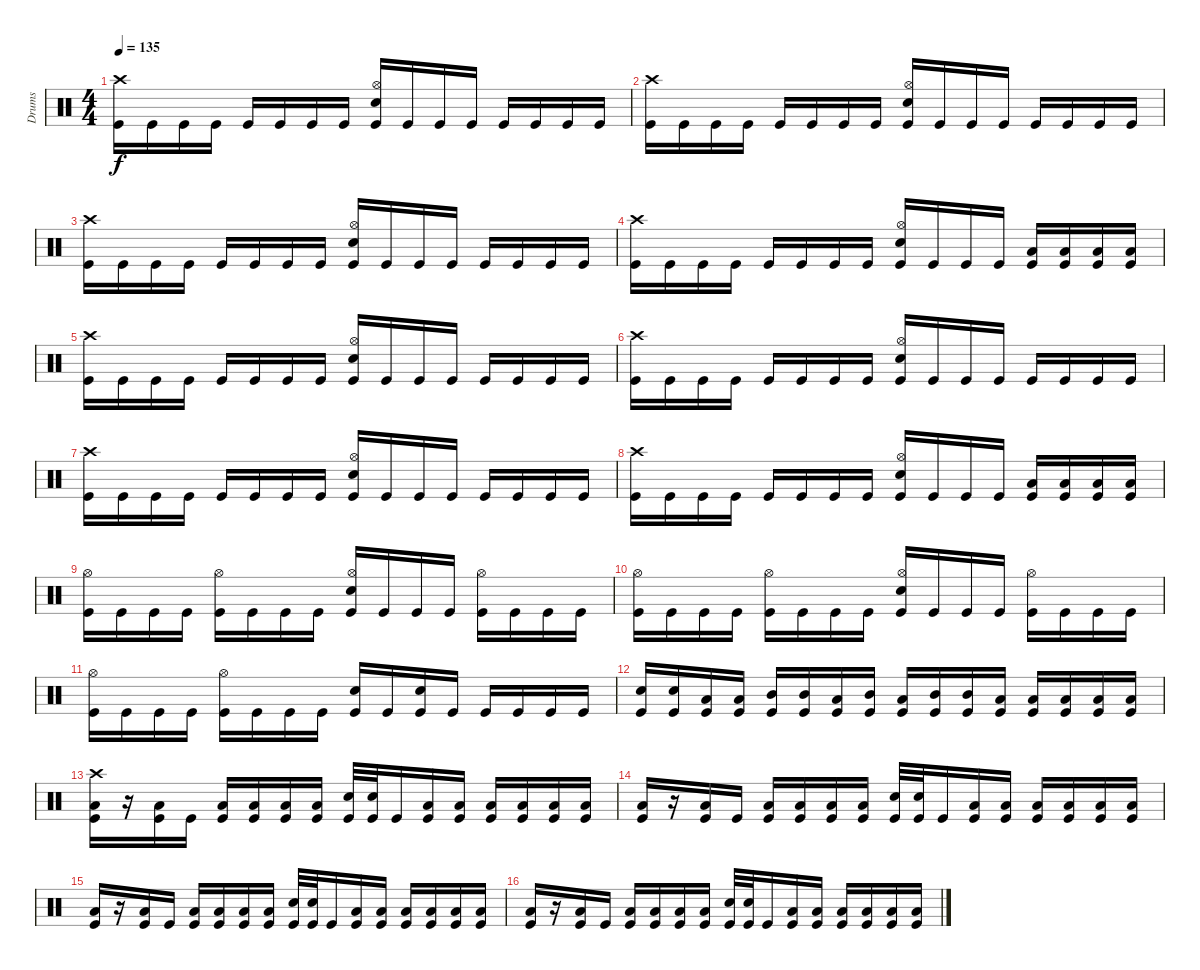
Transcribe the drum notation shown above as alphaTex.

\track ("Drums" "Drums") {instrument percussion}
\staff {score}
\articulation defaults
\ts (4 4)
\tempo 135
\clef neutral
\ks c
("Crash high (hit)" "Kick (hit)").16{dy f} "Kick (hit)".16 "Kick (hit)".16 "Kick (hit)".16 "Kick (hit)".16 "Kick (hit)".16 "Kick (hit)".16 "Kick (hit)".16 ("Hi-Hat (open)" "Electric Snare (hit)" "Kick (hit)").16 "Kick (hit)".16 "Kick (hit)".16 "Kick (hit)".16 "Kick (hit)".16 "Kick (hit)".16 "Kick (hit)".16 "Kick (hit)".16 |
("Crash high (hit)" "Kick (hit)").16 "Kick (hit)".16 "Kick (hit)".16 "Kick (hit)".16 "Kick (hit)".16 "Kick (hit)".16 "Kick (hit)".16 "Kick (hit)".16 ("Hi-Hat (open)" "Electric Snare (hit)" "Kick (hit)").16 "Kick (hit)".16 "Kick (hit)".16 "Kick (hit)".16 "Kick (hit)".16 "Kick (hit)".16 "Kick (hit)".16 "Kick (hit)".16 |
("Crash high (hit)" "Kick (hit)").16 "Kick (hit)".16 "Kick (hit)".16 "Kick (hit)".16 "Kick (hit)".16 "Kick (hit)".16 "Kick (hit)".16 "Kick (hit)".16 ("Hi-Hat (open)" "Electric Snare (hit)" "Kick (hit)").16 "Kick (hit)".16 "Kick (hit)".16 "Kick (hit)".16 "Kick (hit)".16 "Kick (hit)".16 "Kick (hit)".16 "Kick (hit)".16 |
("Crash high (hit)" "Kick (hit)").16 "Kick (hit)".16 "Kick (hit)".16 "Kick (hit)".16 "Kick (hit)".16 "Kick (hit)".16 "Kick (hit)".16 "Kick (hit)".16 ("Hi-Hat (open)" "Electric Snare (hit)" "Kick (hit)").16 "Kick (hit)".16 "Kick (hit)".16 "Kick (hit)".16 ("Low Tom (hit)" "Kick (hit)").16 ("Low Tom (hit)" "Kick (hit)").16 ("Low Tom (hit)" "Kick (hit)").16 ("Low Tom (hit)" "Kick (hit)").16 |
("Crash high (hit)" "Kick (hit)").16 "Kick (hit)".16 "Kick (hit)".16 "Kick (hit)".16 "Kick (hit)".16 "Kick (hit)".16 "Kick (hit)".16 "Kick (hit)".16 ("Hi-Hat (open)" "Electric Snare (hit)" "Kick (hit)").16 "Kick (hit)".16 "Kick (hit)".16 "Kick (hit)".16 "Kick (hit)".16 "Kick (hit)".16 "Kick (hit)".16 "Kick (hit)".16 |
("Crash high (hit)" "Kick (hit)").16 "Kick (hit)".16 "Kick (hit)".16 "Kick (hit)".16 "Kick (hit)".16 "Kick (hit)".16 "Kick (hit)".16 "Kick (hit)".16 ("Hi-Hat (open)" "Electric Snare (hit)" "Kick (hit)").16 "Kick (hit)".16 "Kick (hit)".16 "Kick (hit)".16 "Kick (hit)".16 "Kick (hit)".16 "Kick (hit)".16 "Kick (hit)".16 |
("Crash high (hit)" "Kick (hit)").16 "Kick (hit)".16 "Kick (hit)".16 "Kick (hit)".16 "Kick (hit)".16 "Kick (hit)".16 "Kick (hit)".16 "Kick (hit)".16 ("Hi-Hat (open)" "Electric Snare (hit)" "Kick (hit)").16 "Kick (hit)".16 "Kick (hit)".16 "Kick (hit)".16 "Kick (hit)".16 "Kick (hit)".16 "Kick (hit)".16 "Kick (hit)".16 |
("Crash high (hit)" "Kick (hit)").16 "Kick (hit)".16 "Kick (hit)".16 "Kick (hit)".16 "Kick (hit)".16 "Kick (hit)".16 "Kick (hit)".16 "Kick (hit)".16 ("Hi-Hat (open)" "Electric Snare (hit)" "Kick (hit)").16 "Kick (hit)".16 "Kick (hit)".16 "Kick (hit)".16 ("Low Tom (hit)" "Kick (hit)").16 ("Low Tom (hit)" "Kick (hit)").16 ("Low Tom (hit)" "Kick (hit)").16 ("Low Tom (hit)" "Kick (hit)").16 |
("Hi-Hat (open)" "Kick (hit)").16 "Kick (hit)".16 "Kick (hit)".16 "Kick (hit)".16 ("Hi-Hat (open)" "Kick (hit)").16 "Kick (hit)".16 "Kick (hit)".16 "Kick (hit)".16 ("Hi-Hat (open)" "Electric Snare (hit)" "Kick (hit)").16 "Kick (hit)".16 "Kick (hit)".16 "Kick (hit)".16 ("Hi-Hat (open)" "Kick (hit)").16 "Kick (hit)".16 "Kick (hit)".16 "Kick (hit)".16 |
("Hi-Hat (open)" "Kick (hit)").16 "Kick (hit)".16 "Kick (hit)".16 "Kick (hit)".16 ("Hi-Hat (open)" "Kick (hit)").16 "Kick (hit)".16 "Kick (hit)".16 "Kick (hit)".16 ("Hi-Hat (open)" "Electric Snare (hit)" "Kick (hit)").16 "Kick (hit)".16 "Kick (hit)".16 "Kick (hit)".16 ("Hi-Hat (open)" "Kick (hit)").16 "Kick (hit)".16 "Kick (hit)".16 "Kick (hit)".16 |
("Hi-Hat (open)" "Kick (hit)").16 "Kick (hit)".16 "Kick (hit)".16 "Kick (hit)".16 ("Hi-Hat (open)" "Kick (hit)").16 "Kick (hit)".16 "Kick (hit)".16 "Kick (hit)".16 ("Electric Snare (hit)" "Kick (hit)").16 "Kick (hit)".16 ("Electric Snare (hit)" "Kick (hit)").16 "Kick (hit)".16 "Kick (hit)".16 "Kick (hit)".16 "Kick (hit)".16 "Kick (hit)".16 |
("Electric Snare (hit)" "Kick (hit)").16 ("Electric Snare (hit)" "Kick (hit)").16 ("Low Tom (hit)" "Kick (hit)").16 ("Low Tom (hit)" "Kick (hit)").16 ("Mid Tom (hit)" "Kick (hit)").16 ("Mid Tom (hit)" "Kick (hit)").16 ("Low Tom (hit)" "Kick (hit)").16 ("Mid Tom (hit)" "Kick (hit)").16 ("Low Tom (hit)" "Kick (hit)").16 ("Mid Tom (hit)" "Kick (hit)").16 ("Mid Tom (hit)" "Kick (hit)").16 ("Low Tom (hit)" "Kick (hit)").16 ("Low Tom (hit)" "Kick (hit)").16 ("Low Tom (hit)" "Kick (hit)").16 ("Low Tom (hit)" "Kick (hit)").16 ("Low Tom (hit)" "Kick (hit)").16 |
("Crash high (hit)" "Low Tom (hit)" "Kick (hit)").16 r.16 ("Low Tom (hit)" "Kick (hit)").16 "Kick (hit)".16 ("Low Tom (hit)" "Kick (hit)").16 ("Low Tom (hit)" "Kick (hit)").16 ("Low Tom (hit)" "Kick (hit)").16 ("Low Tom (hit)" "Kick (hit)").16 ("Electric Snare (hit)" "Kick (hit)").32 ("Electric Snare (hit)" "Kick (hit)").32 "Kick (hit)".16 ("Low Tom (hit)" "Kick (hit)").16 ("Low Tom (hit)" "Kick (hit)").16 ("Low Tom (hit)" "Kick (hit)").16 ("Low Tom (hit)" "Kick (hit)").16 ("Low Tom (hit)" "Kick (hit)").16 ("Low Tom (hit)" "Kick (hit)").16 |
("Low Tom (hit)" "Kick (hit)").16 r.16 ("Low Tom (hit)" "Kick (hit)").16 "Kick (hit)".16 ("Low Tom (hit)" "Kick (hit)").16 ("Low Tom (hit)" "Kick (hit)").16 ("Low Tom (hit)" "Kick (hit)").16 ("Low Tom (hit)" "Kick (hit)").16 ("Electric Snare (hit)" "Kick (hit)").32 ("Electric Snare (hit)" "Kick (hit)").32 "Kick (hit)".16 ("Low Tom (hit)" "Kick (hit)").16 ("Low Tom (hit)" "Kick (hit)").16 ("Low Tom (hit)" "Kick (hit)").16 ("Low Tom (hit)" "Kick (hit)").16 ("Low Tom (hit)" "Kick (hit)").16 ("Low Tom (hit)" "Kick (hit)").16 |
("Low Tom (hit)" "Kick (hit)").16 r.16 ("Low Tom (hit)" "Kick (hit)").16 "Kick (hit)".16 ("Low Tom (hit)" "Kick (hit)").16 ("Low Tom (hit)" "Kick (hit)").16 ("Low Tom (hit)" "Kick (hit)").16 ("Low Tom (hit)" "Kick (hit)").16 ("Electric Snare (hit)" "Kick (hit)").32 ("Electric Snare (hit)" "Kick (hit)").32 "Kick (hit)".16 ("Low Tom (hit)" "Kick (hit)").16 ("Low Tom (hit)" "Kick (hit)").16 ("Low Tom (hit)" "Kick (hit)").16 ("Low Tom (hit)" "Kick (hit)").16 ("Low Tom (hit)" "Kick (hit)").16 ("Low Tom (hit)" "Kick (hit)").16 |
("Low Tom (hit)" "Kick (hit)").16 r.16 ("Low Tom (hit)" "Kick (hit)").16 "Kick (hit)".16 ("Low Tom (hit)" "Kick (hit)").16 ("Low Tom (hit)" "Kick (hit)").16 ("Low Tom (hit)" "Kick (hit)").16 ("Low Tom (hit)" "Kick (hit)").16 ("Electric Snare (hit)" "Kick (hit)").32 ("Electric Snare (hit)" "Kick (hit)").32 "Kick (hit)".16 ("Low Tom (hit)" "Kick (hit)").16 ("Low Tom (hit)" "Kick (hit)").16 ("Low Tom (hit)" "Kick (hit)").16 ("Low Tom (hit)" "Kick (hit)").16 ("Low Tom (hit)" "Kick (hit)").16 ("Low Tom (hit)" "Kick (hit)").16
